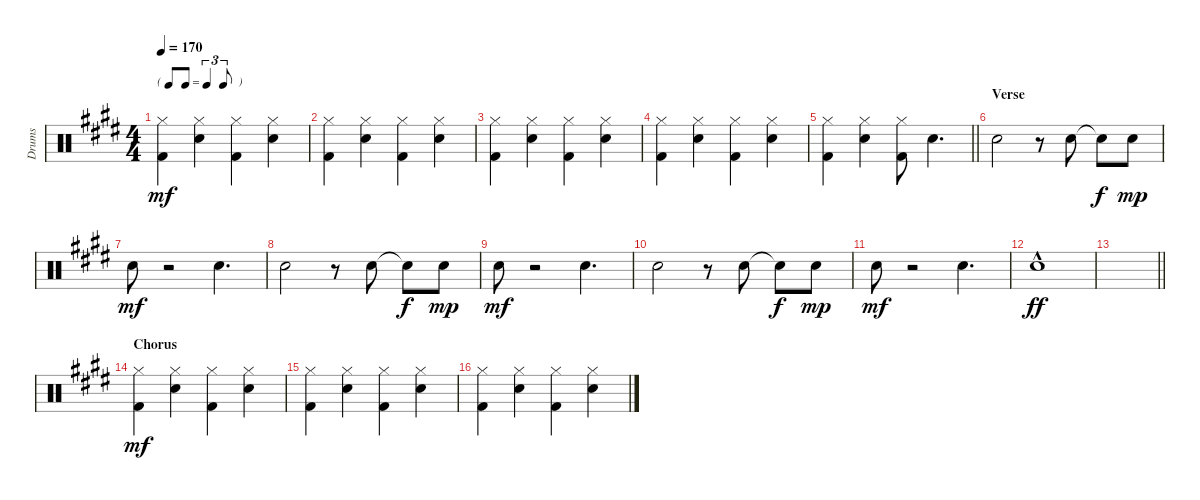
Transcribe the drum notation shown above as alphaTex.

\track ("Drums" "Drums") {instrument percussion}
\staff {score}
\articulation defaults
\ts (4 4)
\tf triplet8th
\tempo 170
\clef neutral
\ks e
("Kick (hit) 2" "Hi-Hat (closed)").4{dy mf} ("Snare (hit) 2" "Hi-Hat (closed)").4 ("Kick (hit) 2" "Hi-Hat (closed)").4 ("Snare (hit) 2" "Hi-Hat (closed)").4 |
("Kick (hit) 2" "Hi-Hat (closed)").4 ("Snare (hit) 2" "Hi-Hat (closed)").4 ("Kick (hit) 2" "Hi-Hat (closed)").4 ("Snare (hit) 2" "Hi-Hat (closed)").4 |
("Kick (hit) 2" "Hi-Hat (closed)").4 ("Snare (hit) 2" "Hi-Hat (closed)").4 ("Kick (hit) 2" "Hi-Hat (closed)").4 ("Snare (hit) 2" "Hi-Hat (closed)").4 |
("Kick (hit) 2" "Hi-Hat (closed)").4 ("Snare (hit) 2" "Hi-Hat (closed)").4 ("Kick (hit) 2" "Hi-Hat (closed)").4 ("Snare (hit) 2" "Hi-Hat (closed)").4 |
\barLineRight lightlight
("Kick (hit) 2" "Hi-Hat (closed)").4 ("Snare (hit) 2" "Hi-Hat (closed)").4 ("Kick (hit) 2" "Hi-Hat (closed)").8 "Snare (hit) 2".4{d} |
\section ("" "Verse")
"Snare (hit) 2".2 r.8 "Snare (hit) 2".8 "Snare (hit) 2"{t}.8{dy f} "Snare (hit) 2".8{dy mp} |
"Snare (hit) 2".8{dy mf} r.2 "Snare (hit) 2".4{d} |
"Snare (hit) 2".2 r.8 "Snare (hit) 2".8 "Snare (hit) 2"{t}.8{dy f} "Snare (hit) 2".8{dy mp} |
"Snare (hit) 2".8{dy mf} r.2 "Snare (hit) 2".4{d} |
"Snare (hit) 2".2 r.8 "Snare (hit) 2".8 "Snare (hit) 2"{t}.8{dy f} "Snare (hit) 2".8{dy mp} |
"Snare (hit) 2".8{dy mf} r.2 "Snare (hit) 2".4{d} |
"Snare (hit) 2"{hac}.1{dy ff} |
\barLineRight lightlight
|
\section ("" "Chorus")
("Kick (hit) 2" "Hi-Hat (closed)").4{dy mf} ("Snare (hit) 2" "Hi-Hat (closed)").4 ("Kick (hit) 2" "Hi-Hat (closed)").4 ("Snare (hit) 2" "Hi-Hat (closed)").4 |
("Kick (hit) 2" "Hi-Hat (closed)").4 ("Snare (hit) 2" "Hi-Hat (closed)").4 ("Kick (hit) 2" "Hi-Hat (closed)").4 ("Snare (hit) 2" "Hi-Hat (closed)").4 |
("Kick (hit) 2" "Hi-Hat (closed)").4 ("Snare (hit) 2" "Hi-Hat (closed)").4 ("Kick (hit) 2" "Hi-Hat (closed)").4 ("Snare (hit) 2" "Hi-Hat (closed)").4
